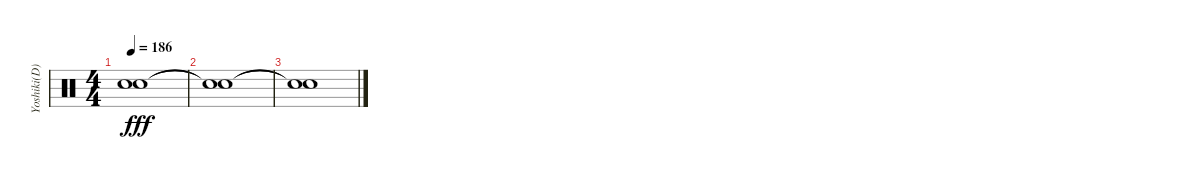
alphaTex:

\track ("Yoshiki(D)" "Yoshiki(D)") {instrument percussion}
\staff {score}
\articulation defaults
\ts (4 4)
\tempo 186
\clef neutral
\ks c
("Snare (hit)"{t} "Snare (hit)"{t}).1{dy fff} |
("Snare (hit)"{t} "Snare (hit)"{t}).1 |
("Snare (hit)"{t} "Snare (hit)"{t}).1
